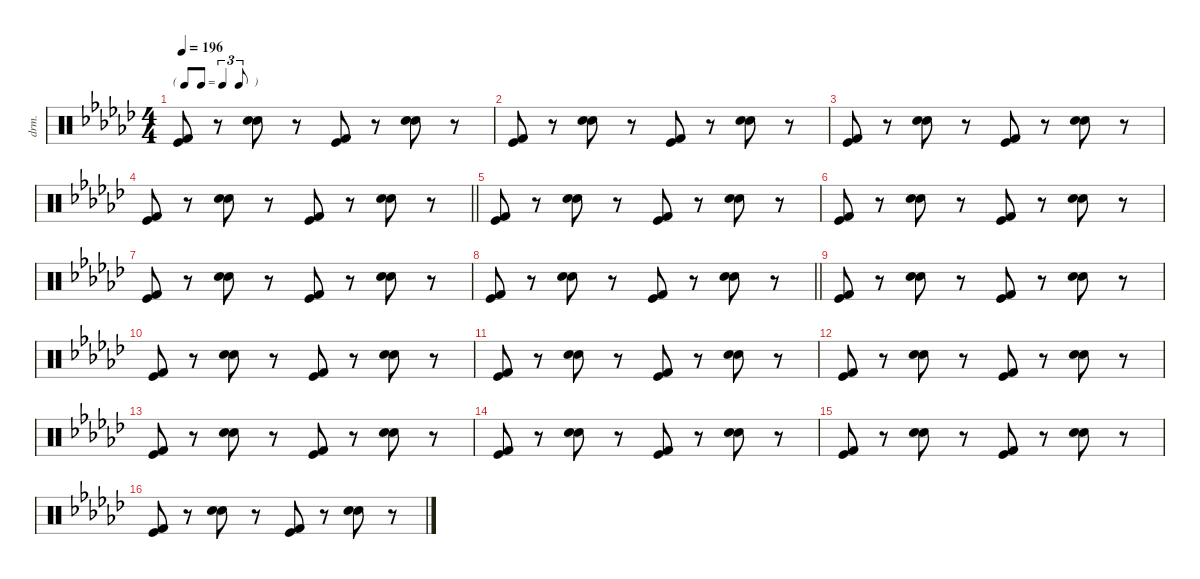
\defaultSystemsLayout 4
\hideDynamics
\bracketExtendMode nobrackets
\otherSystemsTrackNameOrientation horizontal
\track ("Percussions" "drm.") {defaultSystemsLayout 4 instrument percussion}
\staff {score}
\articulation defaults
\ts (4 4)
\tf triplet8th
\tempo 196
\clef neutral
\ks gb
("Kick (hit) 2"{acc forcenatural} "Kick (hit)"{acc forcenatural}).8{dy f beam Up} r.8{beam Up} ("Snare (hit) 2"{acc forcenatural} "Snare (hit) 2"{acc forcenatural}).8{beam Down} r.8{beam Down} ("Kick (hit) 2"{acc forcenatural} "Kick (hit)"{acc forcenatural}).8{beam Up} r.8{beam Up} ("Snare (hit) 2"{acc forcenatural} "Snare (hit) 2"{acc forcenatural}).8{beam Down} r.8{beam Down} |
("Kick (hit) 2"{acc forcenatural} "Kick (hit)"{acc forcenatural}).8{beam Up} r.8{beam Up} ("Snare (hit) 2"{acc forcenatural} "Snare (hit) 2"{acc forcenatural}).8{beam Down} r.8{beam Down} ("Kick (hit) 2"{acc forcenatural} "Kick (hit)"{acc forcenatural}).8{beam Up} r.8{beam Up} ("Snare (hit) 2"{acc forcenatural} "Snare (hit) 2"{acc forcenatural}).8{beam Down} r.8{beam Down} |
("Kick (hit) 2"{acc forcenatural} "Kick (hit)"{acc forcenatural}).8{beam Up} r.8{beam Up} ("Snare (hit) 2"{acc forcenatural} "Snare (hit) 2"{acc forcenatural}).8{beam Down} r.8{beam Down} ("Kick (hit) 2"{acc forcenatural} "Kick (hit)"{acc forcenatural}).8{beam Up} r.8{beam Up} ("Snare (hit) 2"{acc forcenatural} "Snare (hit) 2"{acc forcenatural}).8{beam Down} r.8{beam Down} |
\barLineRight lightlight
("Kick (hit) 2"{acc forcenatural} "Kick (hit)"{acc forcenatural}).8{beam Up} r.8{beam Up} ("Snare (hit) 2"{acc forcenatural} "Snare (hit) 2"{acc forcenatural}).8{beam Down} r.8{beam Down} ("Kick (hit) 2"{acc forcenatural} "Kick (hit)"{acc forcenatural}).8{beam Up} r.8{beam Up} ("Snare (hit) 2"{acc forcenatural} "Snare (hit) 2"{acc forcenatural}).8{beam Down} r.8{beam Down} |
("Kick (hit) 2"{acc forcenatural} "Kick (hit)"{acc forcenatural}).8{beam Up} r.8{beam Up} ("Snare (hit) 2"{acc forcenatural} "Snare (hit) 2"{acc forcenatural}).8{beam Down} r.8{beam Down} ("Kick (hit) 2"{acc forcenatural} "Kick (hit)"{acc forcenatural}).8{beam Up} r.8{beam Up} ("Snare (hit) 2"{acc forcenatural} "Snare (hit) 2"{acc forcenatural}).8{beam Down} r.8{beam Down} |
("Kick (hit) 2"{acc forcenatural} "Kick (hit)"{acc forcenatural}).8{beam Up} r.8{beam Up} ("Snare (hit) 2"{acc forcenatural} "Snare (hit) 2"{acc forcenatural}).8{beam Down} r.8{beam Down} ("Kick (hit) 2"{acc forcenatural} "Kick (hit)"{acc forcenatural}).8{beam Up} r.8{beam Up} ("Snare (hit) 2"{acc forcenatural} "Snare (hit) 2"{acc forcenatural}).8{beam Down} r.8{beam Down} |
("Kick (hit) 2"{acc forcenatural} "Kick (hit)"{acc forcenatural}).8{beam Up} r.8{beam Up} ("Snare (hit) 2"{acc forcenatural} "Snare (hit) 2"{acc forcenatural}).8{beam Down} r.8{beam Down} ("Kick (hit) 2"{acc forcenatural} "Kick (hit)"{acc forcenatural}).8{beam Up} r.8{beam Up} ("Snare (hit) 2"{acc forcenatural} "Snare (hit) 2"{acc forcenatural}).8{beam Down} r.8{beam Down} |
\barLineRight lightlight
("Kick (hit) 2"{acc forcenatural} "Kick (hit)"{acc forcenatural}).8{beam Up} r.8{beam Up} ("Snare (hit) 2"{acc forcenatural} "Snare (hit) 2"{acc forcenatural}).8{beam Down} r.8{beam Down} ("Kick (hit) 2"{acc forcenatural} "Kick (hit)"{acc forcenatural}).8{beam Up} r.8{beam Up} ("Snare (hit) 2"{acc forcenatural} "Snare (hit) 2"{acc forcenatural}).8{beam Down} r.8{beam Down} |
("Kick (hit) 2"{acc forcenatural} "Kick (hit)"{acc forcenatural}).8{beam Up} r.8{beam Up} ("Snare (hit) 2"{acc forcenatural} "Snare (hit) 2"{acc forcenatural}).8{beam Down} r.8{beam Down} ("Kick (hit) 2"{acc forcenatural} "Kick (hit)"{acc forcenatural}).8{beam Up} r.8{beam Up} ("Snare (hit) 2"{acc forcenatural} "Snare (hit) 2"{acc forcenatural}).8{beam Down} r.8{beam Down} |
("Kick (hit) 2"{acc forcenatural} "Kick (hit)"{acc forcenatural}).8{beam Up} r.8{beam Up} ("Snare (hit) 2"{acc forcenatural} "Snare (hit) 2"{acc forcenatural}).8{beam Down} r.8{beam Down} ("Kick (hit) 2"{acc forcenatural} "Kick (hit)"{acc forcenatural}).8{beam Up} r.8{beam Up} ("Snare (hit) 2"{acc forcenatural} "Snare (hit) 2"{acc forcenatural}).8{beam Down} r.8{beam Down} |
("Kick (hit) 2"{acc forcenatural} "Kick (hit)"{acc forcenatural}).8{beam Up} r.8{beam Up} ("Snare (hit) 2"{acc forcenatural} "Snare (hit) 2"{acc forcenatural}).8{beam Down} r.8{beam Down} ("Kick (hit) 2"{acc forcenatural} "Kick (hit)"{acc forcenatural}).8{beam Up} r.8{beam Up} ("Snare (hit) 2"{acc forcenatural} "Snare (hit) 2"{acc forcenatural}).8{beam Down} r.8{beam Down} |
("Kick (hit) 2"{acc forcenatural} "Kick (hit)"{acc forcenatural}).8{beam Up} r.8{beam Up} ("Snare (hit) 2"{acc forcenatural} "Snare (hit) 2"{acc forcenatural}).8{beam Down} r.8{beam Down} ("Kick (hit) 2"{acc forcenatural} "Kick (hit)"{acc forcenatural}).8{beam Up} r.8{beam Up} ("Snare (hit) 2"{acc forcenatural} "Snare (hit) 2"{acc forcenatural}).8{beam Down} r.8{beam Down} |
("Kick (hit) 2"{acc forcenatural} "Kick (hit)"{acc forcenatural}).8{beam Up} r.8{beam Up} ("Snare (hit) 2"{acc forcenatural} "Snare (hit) 2"{acc forcenatural}).8{beam Down} r.8{beam Down} ("Kick (hit) 2"{acc forcenatural} "Kick (hit)"{acc forcenatural}).8{beam Up} r.8{beam Up} ("Snare (hit) 2"{acc forcenatural} "Snare (hit) 2"{acc forcenatural}).8{beam Down} r.8{beam Down} |
("Kick (hit) 2"{acc forcenatural} "Kick (hit)"{acc forcenatural}).8{beam Up} r.8{beam Up} ("Snare (hit) 2"{acc forcenatural} "Snare (hit) 2"{acc forcenatural}).8{beam Down} r.8{beam Down} ("Kick (hit) 2"{acc forcenatural} "Kick (hit)"{acc forcenatural}).8{beam Up} r.8{beam Up} ("Snare (hit) 2"{acc forcenatural} "Snare (hit) 2"{acc forcenatural}).8{beam Down} r.8{beam Down} |
("Kick (hit) 2"{acc forcenatural} "Kick (hit)"{acc forcenatural}).8{beam Up} r.8{beam Up} ("Snare (hit) 2"{acc forcenatural} "Snare (hit) 2"{acc forcenatural}).8{beam Down} r.8{beam Down} ("Kick (hit) 2"{acc forcenatural} "Kick (hit)"{acc forcenatural}).8{beam Up} r.8{beam Up} ("Snare (hit) 2"{acc forcenatural} "Snare (hit) 2"{acc forcenatural}).8{beam Down} r.8{beam Down} |
("Kick (hit) 2"{acc forcenatural} "Kick (hit)"{acc forcenatural}).8{beam Up} r.8{beam Up} ("Snare (hit) 2"{acc forcenatural} "Snare (hit) 2"{acc forcenatural}).8{beam Down} r.8{beam Down} ("Kick (hit) 2"{acc forcenatural} "Kick (hit)"{acc forcenatural}).8{beam Up} r.8{beam Up} ("Snare (hit) 2"{acc forcenatural} "Snare (hit) 2"{acc forcenatural}).8{beam Down} r.8{beam Down}
